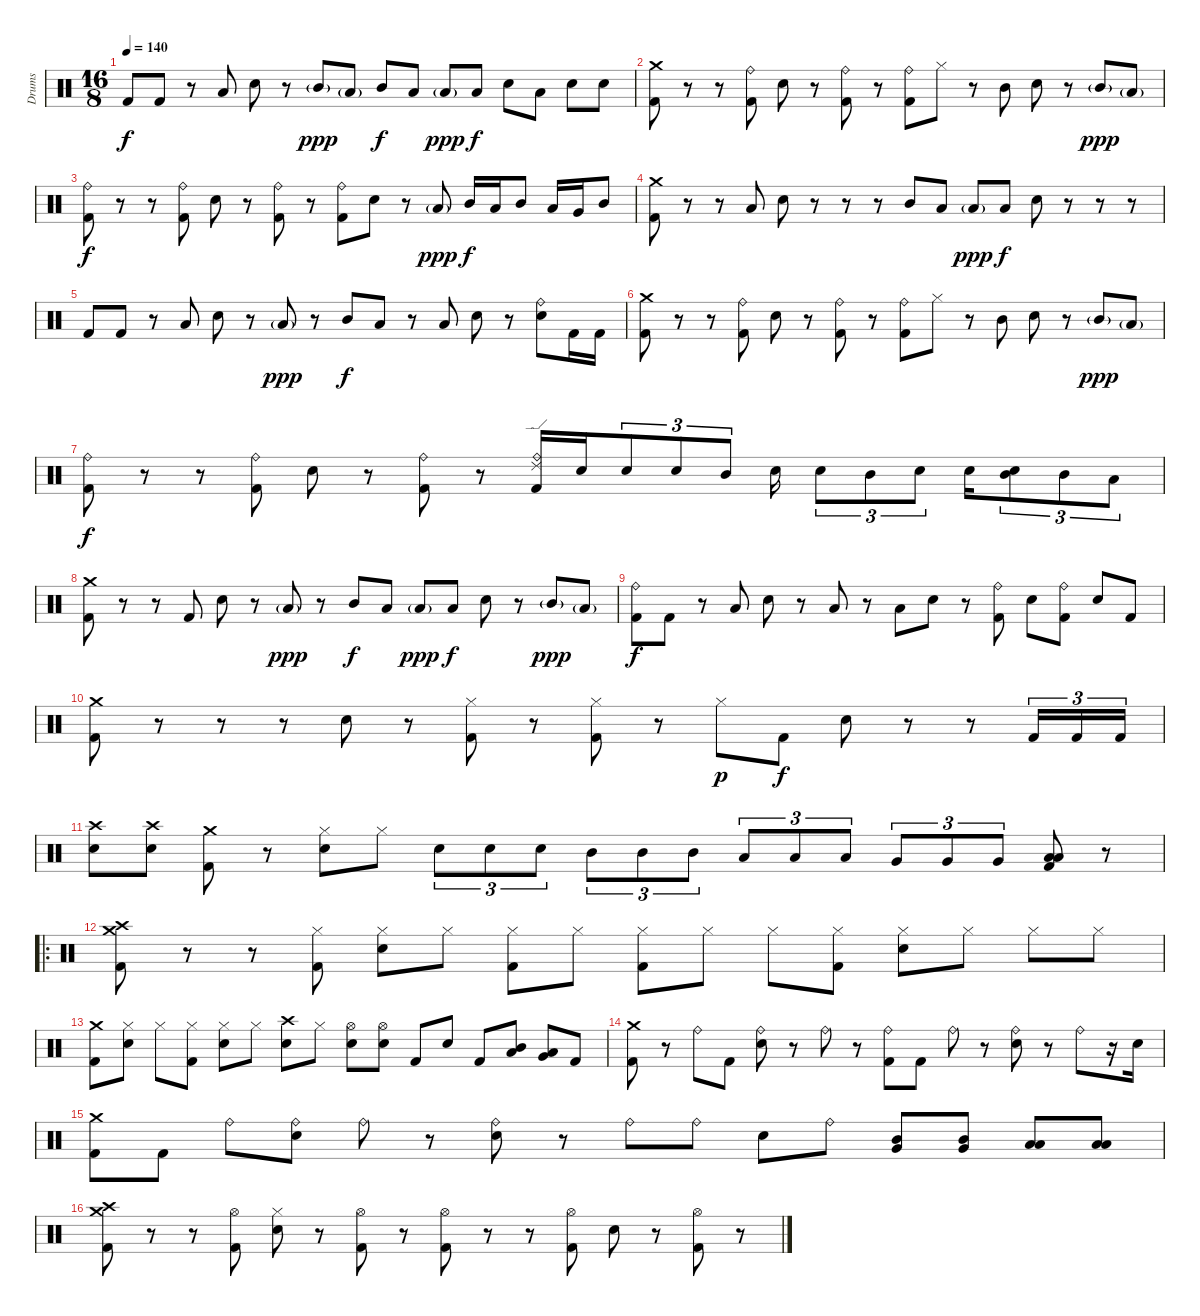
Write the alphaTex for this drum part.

\track ("Drums" "Drums") {instrument percussion}
\staff {score}
\articulation defaults
\ts (16 8)
\tempo 140
\clef neutral
\ks c "Kick (hit) 2".8{dy f} "Kick (hit) 2".8
r.8 "Low Tom (hit)".8 "Electric Snare (hit)".8 r.8 "Mid Tom (hit)"{g}.8{dy ppp} "Low Tom (hit)"{g}.8 "Mid Tom (hit)".8{dy f} "Low Tom (hit)".8 "Low Tom (hit)"{g}.8{dy ppp} "Low Tom (hit)".8{dy f} "Electric Snare (hit)".8 "Low Tom (hit)".8 "Electric Snare (hit)".8 "Electric Snare (hit)".8 |
("Crash medium (hit)" "Kick (hit) 2").8 r.8 r.8 ("Ride (bell)" "Kick (hit) 2").8 "Electric Snare (hit)".8 r.8 ("Ride (bell)" "Kick (hit) 2").8 r.8 ("Ride (bell)" "Kick (hit) 2").8 "Hi-Hat (closed)".8 r.8 "Mid Tom (hit)".8 "Electric Snare (hit)".8 r.8 "Mid Tom (hit)"{g}.8{dy ppp} "Low Tom (hit)"{g}.8 |
("Ride (bell)" "Kick (hit) 2").8{dy f} r.8 r.8 ("Ride (bell)" "Kick (hit) 2").8 "Electric Snare (hit)".8 r.8 ("Ride (bell)" "Kick (hit) 2").8 r.8 ("Ride (bell)" "Kick (hit) 2").8 "Electric Snare (hit)".8 r.8 "Low Tom (hit)"{g}.8{dy ppp} "Mid Tom (hit)".16{dy f} "Low Tom (hit)".16 "Mid Tom (hit)".8 "Low Tom (hit)".16 "Very Low Tom (hit)".16 "Mid Tom (hit)".8 |
("Crash medium (hit)" "Kick (hit) 2").8 r.8 r.8 "Low Tom (hit)".8 "Electric Snare (hit)".8 r.8 r.8 r.8 "Mid Tom (hit)".8 "Low Tom (hit)".8 "Low Tom (hit)"{g}.8{dy ppp} "Low Tom (hit)".8{dy f} "Electric Snare (hit)".8 r.8 r.8 r.8 |
"Kick (hit) 2".8 "Kick (hit) 2".8 r.8 "Low Tom (hit)".8 "Electric Snare (hit)".8 r.8 "Low Tom (hit)"{g}.8{dy ppp} r.8 "Mid Tom (hit)".8{dy f} "Low Tom (hit)".8 r.8 "Low Tom (hit)".8 "Electric Snare (hit)".8 r.8 ("Ride (bell)" "Electric Snare (hit)").8 "Kick (hit) 2".16 "Kick (hit) 2".16 |
("Crash medium (hit)" "Kick (hit) 2").8 r.8 r.8 ("Ride (bell)" "Kick (hit) 2").8 "Electric Snare (hit)".8 r.8 ("Ride (bell)" "Kick (hit) 2").8 r.8 ("Ride (bell)" "Kick (hit) 2").8 "Hi-Hat (closed)".8 r.8 "Mid Tom (hit)".8 "Electric Snare (hit)".8 r.8 "Mid Tom (hit)"{g}.8{dy ppp} "Low Tom (hit)"{g}.8 |
("Ride (bell)" "Kick (hit) 2").8{dy f} r.8 r.8 ("Ride (bell)" "Kick (hit) 2").8 "Electric Snare (hit)".8 r.8 ("Ride (bell)" "Kick (hit) 2").8 r.8 ("Ride (bell)" "Ride (edge) 2" "Kick (hit) 2").16 "Electric Snare (hit)".16{beam merge} "Electric Snare (hit)".8{tu (3 2)} "Electric Snare (hit)".8{tu (3 2) beam merge} "Mid Tom (hit)".8{tu (3 2)} "Electric Snare (hit)".16 "Electric Snare (hit)".8{tu (3 2) beam merge} "Mid Tom (hit)".8{tu (3 2) beam merge} "Electric Snare (hit)".8{tu (3 2)} "Electric Snare (hit)".16{beam merge} ("Electric Snare (hit)" "Mid Tom (hit)").8{tu (3 2)} "Mid Tom (hit)".8{tu (3 2) beam merge} "Low Tom (hit)".8{tu (3 2)} |
("Crash medium (hit)" "Kick (hit) 2").8 r.8 r.8 "Kick (hit) 2".8 "Electric Snare (hit)".8 r.8 "Low Tom (hit)"{g}.8{dy ppp} r.8 "Mid Tom (hit)".8{dy f} "Low Tom (hit)".8 "Low Tom (hit)"{g}.8{dy ppp} "Low Tom (hit)".8{dy f} "Electric Snare (hit)".8 r.8 "Mid Tom (hit)"{g}.8{dy ppp} "Low Tom (hit)"{g}.8 |
("Ride (bell)" "Kick (hit) 2").8{dy f} "Kick (hit) 2".8 r.8 "Low Tom (hit)".8 "Electric Snare (hit)".8 r.8 "Low Tom (hit)".8 r.8 "Low Tom (hit)".8 "Electric Snare (hit)".8 r.8 ("Ride (bell)" "Kick (hit) 2").8 "Electric Snare (hit)".8 ("Ride (bell)" "Kick (hit) 2").8 "Electric Snare (hit)".8 "Kick (hit) 2".8 |
("Crash medium (hit)" "Kick (hit) 2").8 r.8 r.8 r.8 "Electric Snare (hit)".8 r.8 ("Hi-Hat (closed)" "Kick (hit) 2").8 r.8 ("Hi-Hat (closed)" "Kick (hit) 2").8 r.8 "Hi-Hat (closed)".8{dy p} "Kick (hit) 2".8{dy f} "Electric Snare (hit)".8 r.8 r.8 "Kick (hit) 2".16{tu (3 2)} "Kick (hit) 2".16{tu (3 2)} "Kick (hit) 2".16{tu (3 2)} |
("Crash high (hit)" "Electric Snare (hit)").8 ("Crash high (hit)" "Electric Snare (hit)").8 ("Crash medium (hit)" "Kick (hit) 2").8 r.8 ("Hi-Hat (closed)" "Electric Snare (hit)").8 "Hi-Hat (closed)".8 "Electric Snare (hit)".8{tu (3 2)} "Electric Snare (hit)".8{tu (3 2)} "Electric Snare (hit)".8{tu (3 2)} "Mid Tom (hit)".8{tu (3 2)} "Mid Tom (hit)".8{tu (3 2)} "Mid Tom (hit)".8{tu (3 2)} "Low Tom (hit)".8{tu (3 2)} "Low Tom (hit)".8{tu (3 2)} "Low Tom (hit)".8{tu (3 2)} "Very Low Tom (hit)".8{tu (3 2)} "Very Low Tom (hit)".8{tu (3 2)} "Very Low Tom (hit)".8{tu (3 2)} ("Low Tom (hit)" "Low Floor Tom (hit)" "Kick (hit) 2").8 r.8 |
\ro
("Crash medium (hit)" "Crash high (hit)" "Kick (hit) 2").8 r.8 r.8 ("Hi-Hat (closed)" "Kick (hit) 2").8 ("Hi-Hat (closed)" "Electric Snare (hit)").8 "Hi-Hat (closed)".8 ("Hi-Hat (closed)" "Kick (hit) 2").8 "Hi-Hat (closed)".8 ("Hi-Hat (closed)" "Kick (hit) 2").8 "Hi-Hat (closed)".8 "Hi-Hat (closed)".8 ("Hi-Hat (closed)" "Kick (hit) 2").8 ("Hi-Hat (closed)" "Electric Snare (hit)").8 "Hi-Hat (closed)".8 "Hi-Hat (closed)".8 "Hi-Hat (closed)".8 |
("Crash medium (hit)" "Kick (hit) 2").8 ("Hi-Hat (closed)" "Electric Snare (hit)").8 "Hi-Hat (closed)".8 ("Hi-Hat (closed)" "Kick (hit) 2").8 ("Hi-Hat (closed)" "Electric Snare (hit)").8 "Hi-Hat (closed)".8 ("Crash high (hit)" "Electric Snare (hit)").8 "Hi-Hat (closed)".8 ("Hi-Hat (open)" "Electric Snare (hit)").8 ("Hi-Hat (open)" "Electric Snare (hit)").8 "Kick (hit) 2".8 "Electric Snare (hit)".8 "Kick (hit) 2".8 ("Mid Tom (hit)" "Low Tom (hit)").8 ("Low Tom (hit)" "Very Low Tom (hit)").8 "Kick (hit) 2".8 |
("Crash medium (hit)" "Kick (hit) 2").8 r.8 "Ride (bell)".8 "Kick (hit) 2".8 ("Ride (bell)" "Electric Snare (hit)").8 r.8 "Ride (bell)".8 r.8 ("Ride (bell)" "Kick (hit) 2").8 "Kick (hit) 2".8 "Ride (bell)".8 r.8 ("Ride (bell)" "Electric Snare (hit)").8 r.8 "Ride (bell)".8 r.16 "Electric Snare (hit)".16 |
("Crash medium (hit)" "Kick (hit) 2").8 "Kick (hit) 2".8 "Ride (bell)".8 ("Ride (bell)" "Electric Snare (hit)").8 "Ride (bell)".8 r.8 ("Ride (bell)" "Electric Snare (hit)").8 r.8 "Ride (bell)".8 "Ride (bell)".8 "Electric Snare (hit)".8 "Ride (bell)".8 ("Mid Tom (hit)" "Very Low Tom (hit)").8 ("Mid Tom (hit)" "Very Low Tom (hit)").8 ("Low Tom (hit)" "Low Floor Tom (hit)").8 ("Low Tom (hit)" "Low Floor Tom (hit)").8 |
("Crash medium (hit)" "Crash high (hit)" "Kick (hit) 2").8 r.8 r.8 ("Hi-Hat (open)" "Kick (hit) 2").8 ("Hi-Hat (closed)" "Electric Snare (hit)").8 r.8 ("Hi-Hat (open)" "Kick (hit) 2").8 r.8 ("Hi-Hat (open)" "Kick (hit) 2").8 r.8 r.8 ("Hi-Hat (open)" "Kick (hit) 2").8 "Electric Snare (hit)".8 r.8 ("Hi-Hat (open)" "Kick (hit) 2").8 r.8
